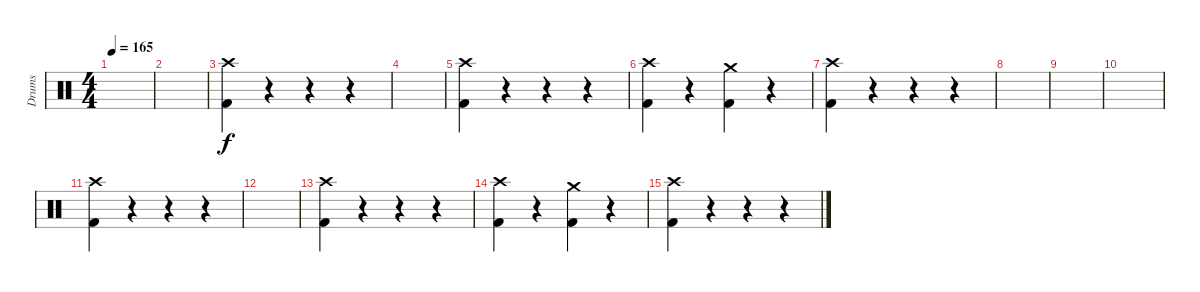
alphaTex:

\track ("Drums" "Drums") {instrument percussion}
\staff {score}
\articulation defaults
\ts (4 4)
\tempo 165
\clef neutral
\ks c
|
|
("Crash high (hit)" "Kick (hit) 2").4 r.4 r.4 r.4 |
|
("Crash high (hit)" "Kick (hit) 2").4 r.4 r.4 r.4 |
("Crash high (hit)" "Kick (hit) 2").4 r.4 ("Crash medium (hit)" "Kick (hit) 2").4 r.4 |
("Crash high (hit)" "Kick (hit) 2").4 r.4 r.4 r.4 |
|
|
|
("Crash high (hit)" "Kick (hit) 2").4 r.4 r.4 r.4 |
|
("Crash high (hit)" "Kick (hit) 2").4 r.4 r.4 r.4 |
("Crash high (hit)" "Kick (hit) 2").4 r.4 ("Crash medium (hit)" "Kick (hit) 2").4 r.4 |
("Crash high (hit)" "Kick (hit) 2").4 r.4 r.4 r.4
